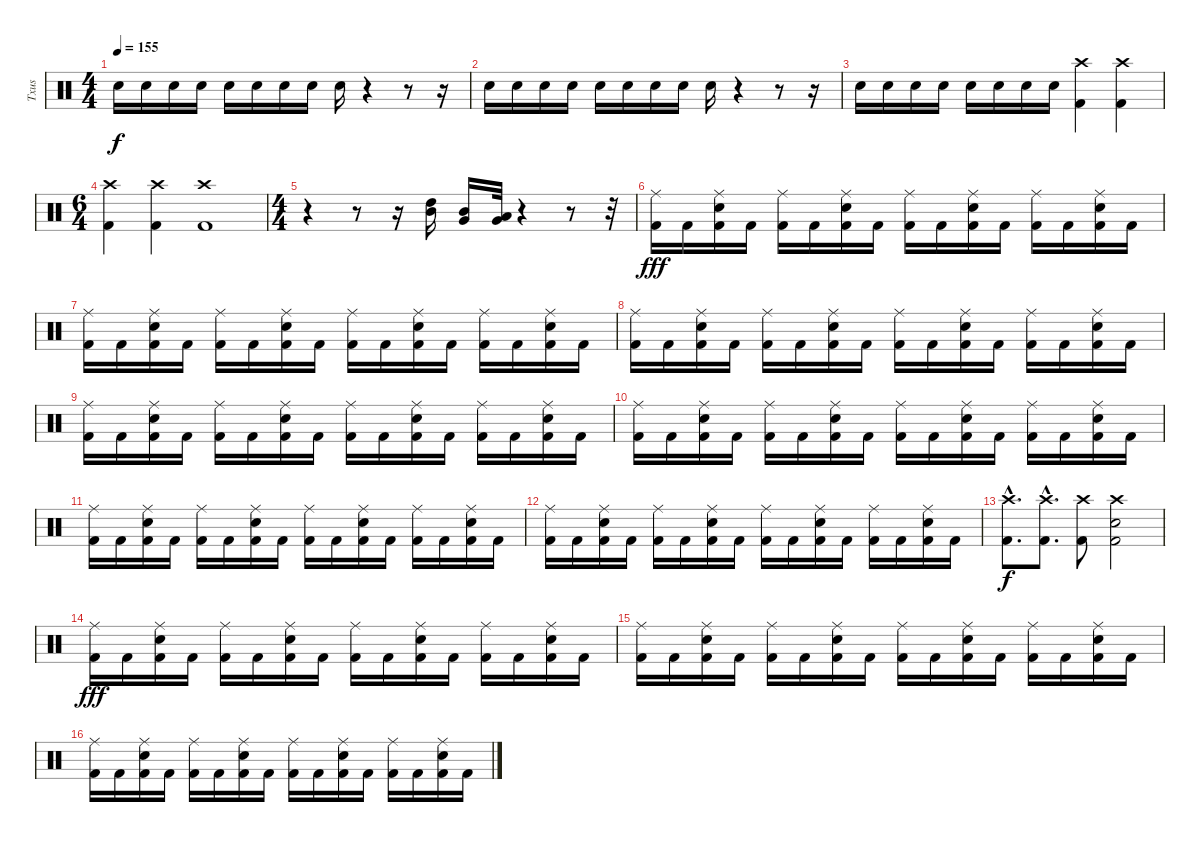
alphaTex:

\track ("Txus" "Txus") {instrument percussion}
\staff {score}
\articulation defaults
\ts (4 4)
\tempo 155
\clef neutral
\ks c "Snare (hit) 2".16{dy f} "Snare (hit) 2".16 "Snare (hit) 2".16 "Snare (hit) 2".16 "Snare (hit) 2".16 "Snare (hit) 2".16 "Snare (hit) 2".16 "Snare (hit) 2".16 "Snare (hit) 2".16
r.4 r.8 r.16 |
"Snare (hit) 2".16 "Snare (hit) 2".16 "Snare (hit) 2".16 "Snare (hit) 2".16 "Snare (hit) 2".16 "Snare (hit) 2".16 "Snare (hit) 2".16 "Snare (hit) 2".16 "Snare (hit) 2".16 r.4 r.8 r.16 |
"Snare (hit) 2".16 "Snare (hit) 2".16 "Snare (hit) 2".16 "Snare (hit) 2".16 "Snare (hit) 2".16 "Snare (hit) 2".16 "Snare (hit) 2".16 "Snare (hit) 2".16 ("Kick (hit) 2" "Crash high (hit)").4 ("Kick (hit) 2" "Crash high (hit)").4 |
\ts (6 4)
("Kick (hit) 2" "Crash high (hit)").4 ("Kick (hit) 2" "Crash high (hit)").4 ("Kick (hit) 2" "Crash high (hit)").1 |
\ts (4 4)
r.4 r.8 r.16 ("Mid Tom (hit)" "High Tom (hit)").16 ("Very Low Tom (hit)" "Mid Tom (hit)").16 ("Low Floor Tom (hit)" "Very Low Tom (hit)").32 r.4 r.8 r.32 |
("Kick (hit) 2" "Ride (middle)").16{dy fff} "Kick (hit) 2".16 ("Kick (hit) 2" "Snare (hit) 2" "Ride (middle)").16 "Kick (hit) 2".16 ("Kick (hit) 2" "Ride (middle)").16 "Kick (hit) 2".16 ("Kick (hit) 2" "Snare (hit) 2" "Ride (middle)").16 "Kick (hit) 2".16 ("Kick (hit) 2" "Ride (middle)").16 "Kick (hit) 2".16 ("Kick (hit) 2" "Snare (hit) 2" "Ride (middle)").16 "Kick (hit) 2".16 ("Kick (hit) 2" "Ride (middle)").16 "Kick (hit) 2".16 ("Kick (hit) 2" "Snare (hit) 2" "Ride (middle)").16 "Kick (hit) 2".16 |
("Kick (hit) 2" "Ride (middle)").16 "Kick (hit) 2".16 ("Kick (hit) 2" "Snare (hit) 2" "Ride (middle)").16 "Kick (hit) 2".16 ("Kick (hit) 2" "Ride (middle)").16 "Kick (hit) 2".16 ("Kick (hit) 2" "Snare (hit) 2" "Ride (middle)").16 "Kick (hit) 2".16 ("Kick (hit) 2" "Ride (middle)").16 "Kick (hit) 2".16 ("Kick (hit) 2" "Snare (hit) 2" "Ride (middle)").16 "Kick (hit) 2".16 ("Kick (hit) 2" "Ride (middle)").16 "Kick (hit) 2".16 ("Kick (hit) 2" "Snare (hit) 2" "Ride (middle)").16 "Kick (hit) 2".16 |
("Kick (hit) 2" "Ride (middle)").16 "Kick (hit) 2".16 ("Kick (hit) 2" "Snare (hit) 2" "Ride (middle)").16 "Kick (hit) 2".16 ("Kick (hit) 2" "Ride (middle)").16 "Kick (hit) 2".16 ("Kick (hit) 2" "Snare (hit) 2" "Ride (middle)").16 "Kick (hit) 2".16 ("Kick (hit) 2" "Ride (middle)").16 "Kick (hit) 2".16 ("Kick (hit) 2" "Snare (hit) 2" "Ride (middle)").16 "Kick (hit) 2".16 ("Kick (hit) 2" "Ride (middle)").16 "Kick (hit) 2".16 ("Kick (hit) 2" "Snare (hit) 2" "Ride (middle)").16 "Kick (hit) 2".16 |
("Kick (hit) 2" "Ride (middle)").16 "Kick (hit) 2".16 ("Kick (hit) 2" "Snare (hit) 2" "Ride (middle)").16 "Kick (hit) 2".16 ("Kick (hit) 2" "Ride (middle)").16 "Kick (hit) 2".16 ("Kick (hit) 2" "Snare (hit) 2" "Ride (middle)").16 "Kick (hit) 2".16 ("Kick (hit) 2" "Ride (middle)").16 "Kick (hit) 2".16 ("Kick (hit) 2" "Snare (hit) 2" "Ride (middle)").16 "Kick (hit) 2".16 ("Kick (hit) 2" "Ride (middle)").16 "Kick (hit) 2".16 ("Kick (hit) 2" "Snare (hit) 2" "Ride (middle)").16 "Kick (hit) 2".16 |
("Kick (hit) 2" "Ride (middle)").16 "Kick (hit) 2".16 ("Kick (hit) 2" "Snare (hit) 2" "Ride (middle)").16 "Kick (hit) 2".16 ("Kick (hit) 2" "Ride (middle)").16 "Kick (hit) 2".16 ("Kick (hit) 2" "Snare (hit) 2" "Ride (middle)").16 "Kick (hit) 2".16 ("Kick (hit) 2" "Ride (middle)").16 "Kick (hit) 2".16 ("Kick (hit) 2" "Snare (hit) 2" "Ride (middle)").16 "Kick (hit) 2".16 ("Kick (hit) 2" "Ride (middle)").16 "Kick (hit) 2".16 ("Kick (hit) 2" "Snare (hit) 2" "Ride (middle)").16 "Kick (hit) 2".16 |
("Kick (hit) 2" "Ride (middle)").16 "Kick (hit) 2".16 ("Kick (hit) 2" "Snare (hit) 2" "Ride (middle)").16 "Kick (hit) 2".16 ("Kick (hit) 2" "Ride (middle)").16 "Kick (hit) 2".16 ("Kick (hit) 2" "Snare (hit) 2" "Ride (middle)").16 "Kick (hit) 2".16 ("Kick (hit) 2" "Ride (middle)").16 "Kick (hit) 2".16 ("Kick (hit) 2" "Snare (hit) 2" "Ride (middle)").16 "Kick (hit) 2".16 ("Kick (hit) 2" "Ride (middle)").16 "Kick (hit) 2".16 ("Kick (hit) 2" "Snare (hit) 2" "Ride (middle)").16 "Kick (hit) 2".16 |
("Kick (hit) 2" "Ride (middle)").16 "Kick (hit) 2".16 ("Kick (hit) 2" "Snare (hit) 2" "Ride (middle)").16 "Kick (hit) 2".16 ("Kick (hit) 2" "Ride (middle)").16 "Kick (hit) 2".16 ("Kick (hit) 2" "Snare (hit) 2" "Ride (middle)").16 "Kick (hit) 2".16 ("Kick (hit) 2" "Ride (middle)").16 "Kick (hit) 2".16 ("Kick (hit) 2" "Snare (hit) 2" "Ride (middle)").16 "Kick (hit) 2".16 ("Kick (hit) 2" "Ride (middle)").16 "Kick (hit) 2".16 ("Kick (hit) 2" "Snare (hit) 2" "Ride (middle)").16 "Kick (hit) 2".16 |
("Kick (hit) 2"{hac} "Crash high (hit)"{hac}).8{d dy f} ("Kick (hit) 2"{hac} "Crash high (hit)"{hac}).8{d} ("Kick (hit) 2" "Crash high (hit)").8 ("Kick (hit) 2" "Crash high (hit)" "Snare (hit) 2").2 |
("Kick (hit) 2" "Ride (middle)").16{dy fff} "Kick (hit) 2".16 ("Kick (hit) 2" "Snare (hit) 2" "Ride (middle)").16 "Kick (hit) 2".16 ("Kick (hit) 2" "Ride (middle)").16 "Kick (hit) 2".16 ("Kick (hit) 2" "Snare (hit) 2" "Ride (middle)").16 "Kick (hit) 2".16 ("Kick (hit) 2" "Ride (middle)").16 "Kick (hit) 2".16 ("Kick (hit) 2" "Snare (hit) 2" "Ride (middle)").16 "Kick (hit) 2".16 ("Kick (hit) 2" "Ride (middle)").16 "Kick (hit) 2".16 ("Kick (hit) 2" "Snare (hit) 2" "Ride (middle)").16 "Kick (hit) 2".16 |
("Kick (hit) 2" "Ride (middle)").16 "Kick (hit) 2".16 ("Kick (hit) 2" "Snare (hit) 2" "Ride (middle)").16 "Kick (hit) 2".16 ("Kick (hit) 2" "Ride (middle)").16 "Kick (hit) 2".16 ("Kick (hit) 2" "Snare (hit) 2" "Ride (middle)").16 "Kick (hit) 2".16 ("Kick (hit) 2" "Ride (middle)").16 "Kick (hit) 2".16 ("Kick (hit) 2" "Snare (hit) 2" "Ride (middle)").16 "Kick (hit) 2".16 ("Kick (hit) 2" "Ride (middle)").16 "Kick (hit) 2".16 ("Kick (hit) 2" "Snare (hit) 2" "Ride (middle)").16 "Kick (hit) 2".16 |
("Kick (hit) 2" "Ride (middle)").16 "Kick (hit) 2".16 ("Kick (hit) 2" "Snare (hit) 2" "Ride (middle)").16 "Kick (hit) 2".16 ("Kick (hit) 2" "Ride (middle)").16 "Kick (hit) 2".16 ("Kick (hit) 2" "Snare (hit) 2" "Ride (middle)").16 "Kick (hit) 2".16 ("Kick (hit) 2" "Ride (middle)").16 "Kick (hit) 2".16 ("Kick (hit) 2" "Snare (hit) 2" "Ride (middle)").16 "Kick (hit) 2".16 ("Kick (hit) 2" "Ride (middle)").16 "Kick (hit) 2".16 ("Kick (hit) 2" "Snare (hit) 2" "Ride (middle)").16 "Kick (hit) 2".16
